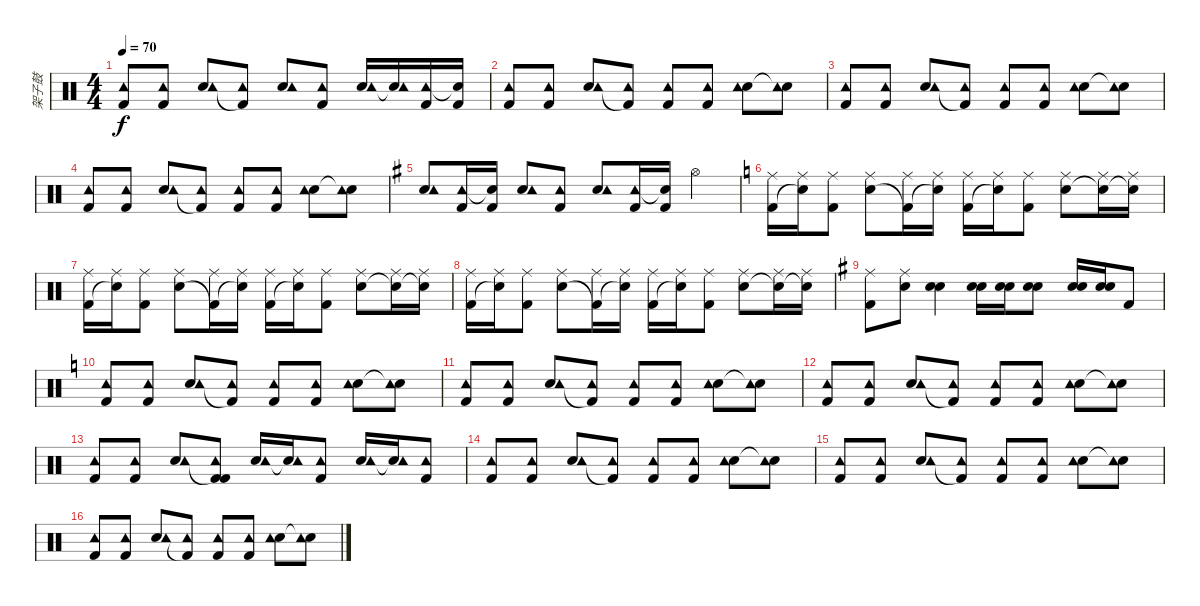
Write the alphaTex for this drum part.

\track ("架子鼓" "架子鼓") {instrument percussion}
\staff {score}
\articulation defaults
\ts (4 4)
\tempo 70
\clef neutral
\ks c
("Kick (hit) 2" "Tambourine (hit)").8{dy f} ("Kick (hit) 2" "Tambourine (hit)").8 ("Snare (hit) 2" "Tambourine (hit)").8 ("Kick (hit) 2"{t} "Tambourine (hit)").8 ("Snare (hit) 2" "Tambourine (hit)").8 ("Kick (hit) 2" "Tambourine (hit)").8 ("Snare (hit) 2" "Tambourine (hit)").16 ("Snare (hit) 2" "Tambourine (hit)"{t}).16 ("Kick (hit) 2" "Tambourine (hit)").16 ("Kick (hit) 2" "Snare (hit)"{t}).16 |
("Kick (hit) 2" "Tambourine (hit)").8 ("Kick (hit) 2" "Tambourine (hit)").8 ("Snare (hit) 2" "Tambourine (hit)").8 ("Kick (hit) 2"{t} "Tambourine (hit)").8 ("Kick (hit) 2" "Tambourine (hit)").8 ("Kick (hit) 2" "Tambourine (hit)").8 ("Snare (hit) 2" "Tambourine (hit)").8 ("Snare (hit) 2"{t} "Tambourine (hit)").8 |
("Kick (hit) 2" "Tambourine (hit)").8 ("Kick (hit) 2" "Tambourine (hit)").8 ("Snare (hit) 2" "Tambourine (hit)").8 ("Kick (hit) 2"{t} "Tambourine (hit)").8 ("Kick (hit) 2" "Tambourine (hit)").8 ("Kick (hit) 2" "Tambourine (hit)").8 ("Snare (hit) 2" "Tambourine (hit)").8 ("Snare (hit) 2"{t} "Tambourine (hit)").8 |
("Kick (hit) 2" "Tambourine (hit)").8 ("Kick (hit) 2" "Tambourine (hit)").8 ("Snare (hit) 2" "Tambourine (hit)").8 ("Kick (hit) 2"{t} "Tambourine (hit)").8 ("Kick (hit) 2" "Tambourine (hit)").8 ("Kick (hit) 2" "Tambourine (hit)").8 ("Snare (hit) 2" "Tambourine (hit)").8 ("Snare (hit) 2"{t} "Tambourine (hit)").8 |
\ks g
("Snare (hit) 2" "Tambourine (hit)").8 ("Kick (hit) 2" "Tambourine (hit)").16 ("Kick (hit) 2" "Snare (hit)"{t}).16 ("Snare (hit) 2" "Tambourine (hit)").8 ("Kick (hit) 2" "Tambourine (hit)").8 ("Snare (hit) 2" "Tambourine (hit)").8 ("Kick (hit) 2" "Tambourine (hit)").16 ("Kick (hit) 2" "Snare (hit)"{t}).16 "Hi-Hat (open)".4 |
\ks c
("Kick (hit) 2" "Ride (middle)").16 ("Snare (hit)"{t} "Ride (middle)").16 ("Kick (hit) 2" "Ride (middle)").8 ("Snare (hit) 2" "Ride (middle)").8 ("Kick (hit) 2"{t} "Ride (middle)").16 ("Snare (hit)"{t} "Ride (middle)").16 ("Kick (hit) 2" "Ride (middle)").16 ("Snare (hit)"{t} "Ride (middle)").16 ("Kick (hit) 2" "Ride (middle)").8 ("Snare (hit) 2" "Ride (middle)").8 ("Snare (hit) 2"{t} "Ride (middle)").16 ("Snare (hit)"{t} "Ride (middle)").16 |
("Kick (hit) 2" "Ride (middle)").16 ("Snare (hit)"{t} "Ride (middle)").16 ("Kick (hit) 2" "Ride (middle)").8 ("Snare (hit) 2" "Ride (middle)").8 ("Kick (hit) 2"{t} "Ride (middle)").16 ("Snare (hit)"{t} "Ride (middle)").16 ("Kick (hit) 2" "Ride (middle)").16 ("Snare (hit)"{t} "Ride (middle)").16 ("Kick (hit) 2" "Ride (middle)").8 ("Snare (hit) 2" "Ride (middle)").8 ("Snare (hit) 2"{t} "Ride (middle)").16 ("Snare (hit)"{t} "Ride (middle)").16 |
("Kick (hit) 2" "Ride (middle)").16 ("Snare (hit)"{t} "Ride (middle)").16 ("Kick (hit) 2" "Ride (middle)").8 ("Snare (hit) 2" "Ride (middle)").8 ("Kick (hit) 2"{t} "Ride (middle)").16 ("Snare (hit)"{t} "Ride (middle)").16 ("Kick (hit) 2" "Ride (middle)").16 ("Snare (hit)"{t} "Ride (middle)").16 ("Kick (hit) 2" "Ride (middle)").8 ("Snare (hit) 2" "Ride (middle)").8 ("Snare (hit) 2"{t} "Ride (middle)").16 ("Snare (hit)"{t} "Ride (middle)").16 |
\ks g
("Kick (hit) 2" "Ride (middle)").8 ("Snare (hit) 2" "Ride (middle)").8 ("Snare (hit) 2" "Snare (hit) 2").4 ("Snare (hit) 2" "Snare (hit) 2").16 ("Snare (hit) 2" "Snare (hit) 2").16 ("Snare (hit) 2" "Snare (hit) 2").8 ("Snare (hit) 2" "Snare (hit) 2").16 ("Snare (hit) 2" "Snare (hit) 2").16 "Kick (hit) 2".8 |
\ks c
("Kick (hit) 2" "Tambourine (hit)").8 ("Kick (hit) 2" "Tambourine (hit)").8 ("Snare (hit) 2" "Tambourine (hit)").8 ("Kick (hit) 2"{t} "Tambourine (hit)").8 ("Kick (hit) 2" "Tambourine (hit)").8 ("Kick (hit) 2" "Tambourine (hit)").8 ("Snare (hit) 2" "Tambourine (hit)").8 ("Snare (hit) 2"{t} "Tambourine (hit)").8 |
("Kick (hit) 2" "Tambourine (hit)").8 ("Kick (hit) 2" "Tambourine (hit)").8 ("Snare (hit) 2" "Tambourine (hit)").8 ("Kick (hit) 2"{t} "Tambourine (hit)").8 ("Kick (hit) 2" "Tambourine (hit)").8 ("Kick (hit) 2" "Tambourine (hit)").8 ("Snare (hit) 2" "Tambourine (hit)").8 ("Snare (hit) 2"{t} "Tambourine (hit)").8 |
("Kick (hit) 2" "Tambourine (hit)").8 ("Kick (hit) 2" "Tambourine (hit)").8 ("Snare (hit) 2" "Tambourine (hit)").8 ("Kick (hit) 2"{t} "Tambourine (hit)").8 ("Kick (hit) 2" "Tambourine (hit)").8 ("Kick (hit) 2" "Tambourine (hit)").8 ("Snare (hit) 2" "Tambourine (hit)").8 ("Snare (hit) 2"{t} "Tambourine (hit)").8 |
("Kick (hit) 2" "Tambourine (hit)").8 ("Kick (hit) 2" "Tambourine (hit)").8 ("Snare (hit) 2" "Tambourine (hit)").8 ("Kick (hit) 2"{t} "Tambourine (hit)" "Kick (hit) 2").8 ("Snare (hit) 2" "Tambourine (hit)").16 ("Snare (hit) 2" "Tambourine (hit)"{t}).16 ("Kick (hit) 2" "Tambourine (hit)").8 ("Snare (hit) 2" "Tambourine (hit)").16 ("Snare (hit) 2" "Tambourine (hit)"{t}).16 ("Kick (hit) 2" "Tambourine (hit)").8 |
("Kick (hit) 2" "Tambourine (hit)").8 ("Kick (hit) 2" "Tambourine (hit)").8 ("Snare (hit) 2" "Tambourine (hit)").8 ("Kick (hit) 2"{t} "Tambourine (hit)").8 ("Kick (hit) 2" "Tambourine (hit)").8 ("Kick (hit) 2" "Tambourine (hit)").8 ("Snare (hit) 2" "Tambourine (hit)").8 ("Snare (hit) 2"{t} "Tambourine (hit)").8 |
("Kick (hit) 2" "Tambourine (hit)").8 ("Kick (hit) 2" "Tambourine (hit)").8 ("Snare (hit) 2" "Tambourine (hit)").8 ("Kick (hit) 2"{t} "Tambourine (hit)").8 ("Kick (hit) 2" "Tambourine (hit)").8 ("Kick (hit) 2" "Tambourine (hit)").8 ("Snare (hit) 2" "Tambourine (hit)").8 ("Snare (hit) 2"{t} "Tambourine (hit)").8 |
("Kick (hit) 2" "Tambourine (hit)").8 ("Kick (hit) 2" "Tambourine (hit)").8 ("Snare (hit) 2" "Tambourine (hit)").8 ("Kick (hit) 2"{t} "Tambourine (hit)").8 ("Kick (hit) 2" "Tambourine (hit)").8 ("Kick (hit) 2" "Tambourine (hit)").8 ("Snare (hit) 2" "Tambourine (hit)").8 ("Snare (hit) 2"{t} "Tambourine (hit)").8
